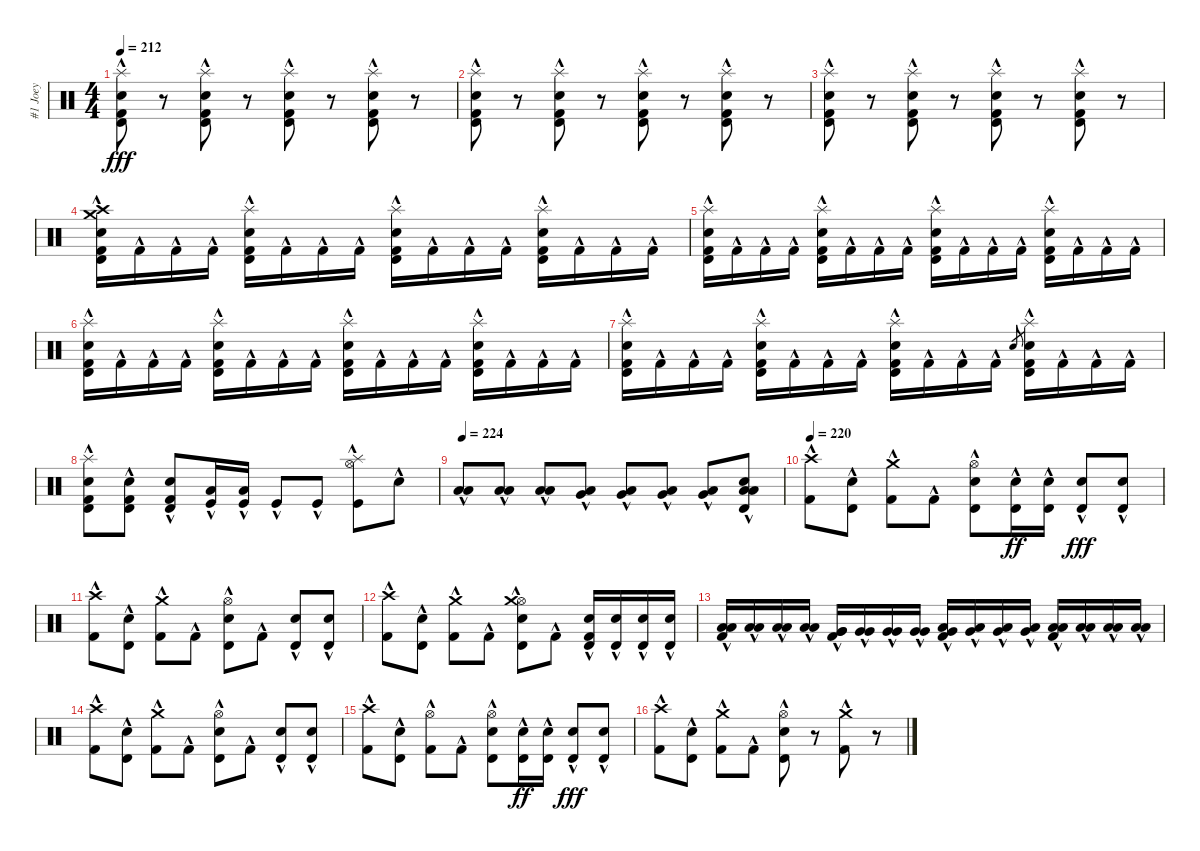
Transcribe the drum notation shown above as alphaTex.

\track ("#1 Joey" "#1 Joey") {instrument percussion}
\staff {score}
\articulation defaults
\ts (4 4)
\tempo 212
\clef neutral
\ks c
("Splash (hit)"{hac} "Timbale high (hit)"{hac} "Electric Snare (hit)"{hac} "Kick (hit) 2"{hac}).8{dy fff} r.8 ("Splash (hit)"{hac} "Timbale high (hit)"{hac} "Electric Snare (hit)"{hac} "Kick (hit) 2"{hac}).8 r.8 ("Splash (hit)"{hac} "Timbale high (hit)"{hac} "Electric Snare (hit)"{hac} "Kick (hit) 2"{hac}).8 r.8 ("Splash (hit)"{hac} "Timbale high (hit)"{hac} "Electric Snare (hit)"{hac} "Kick (hit) 2"{hac}).8 r.8 |
("Splash (hit)"{hac} "Timbale high (hit)"{hac} "Electric Snare (hit)"{hac} "Kick (hit) 2"{hac}).8 r.8 ("Splash (hit)"{hac} "Timbale high (hit)"{hac} "Electric Snare (hit)"{hac} "Kick (hit) 2"{hac}).8 r.8 ("Splash (hit)"{hac} "Timbale high (hit)"{hac} "Electric Snare (hit)"{hac} "Kick (hit) 2"{hac}).8 r.8 ("Splash (hit)"{hac} "Timbale high (hit)"{hac} "Electric Snare (hit)"{hac} "Kick (hit) 2"{hac}).8 r.8 |
("Splash (hit)"{hac} "Timbale high (hit)"{hac} "Electric Snare (hit)"{hac} "Kick (hit) 2"{hac}).8 r.8 ("Splash (hit)"{hac} "Timbale high (hit)"{hac} "Electric Snare (hit)"{hac} "Kick (hit) 2"{hac}).8 r.8 ("Splash (hit)"{hac} "Timbale high (hit)"{hac} "Electric Snare (hit)"{hac} "Kick (hit) 2"{hac}).8 r.8 ("Splash (hit)"{hac} "Timbale high (hit)"{hac} "Electric Snare (hit)"{hac} "Kick (hit) 2"{hac}).8 r.8 |
("Crash high (hit)"{hac} "Crash medium (hit)"{hac} "Timbale high (hit)"{hac} "Electric Snare (hit)"{hac} "Kick (hit) 2"{hac}).16 "Kick (hit) 2"{hac}.16 "Kick (hit) 2"{hac}.16 "Kick (hit) 2"{hac}.16 ("Splash (hit)"{hac} "Timbale high (hit)"{hac} "Electric Snare (hit)"{hac} "Kick (hit) 2"{hac}).16 "Kick (hit) 2"{hac}.16 "Kick (hit) 2"{hac}.16 "Kick (hit) 2"{hac}.16 ("Splash (hit)"{hac} "Timbale high (hit)"{hac} "Electric Snare (hit)"{hac} "Kick (hit) 2"{hac}).16 "Kick (hit) 2"{hac}.16 "Kick (hit) 2"{hac}.16 "Kick (hit) 2"{hac}.16 ("Splash (hit)"{hac} "Timbale high (hit)"{hac} "Electric Snare (hit)"{hac} "Kick (hit) 2"{hac}).16 "Kick (hit) 2"{hac}.16 "Kick (hit) 2"{hac}.16 "Kick (hit) 2"{hac}.16 |
("Splash (hit)"{hac} "Timbale high (hit)"{hac} "Electric Snare (hit)"{hac} "Kick (hit) 2"{hac}).16 "Kick (hit) 2"{hac}.16 "Kick (hit) 2"{hac}.16 "Kick (hit) 2"{hac}.16 ("Splash (hit)"{hac} "Timbale high (hit)"{hac} "Electric Snare (hit)"{hac} "Kick (hit) 2"{hac}).16 "Kick (hit) 2"{hac}.16 "Kick (hit) 2"{hac}.16 "Kick (hit) 2"{hac}.16 ("Splash (hit)"{hac} "Timbale high (hit)"{hac} "Electric Snare (hit)"{hac} "Kick (hit) 2"{hac}).16 "Kick (hit) 2"{hac}.16 "Kick (hit) 2"{hac}.16 "Kick (hit) 2"{hac}.16 ("Splash (hit)"{hac} "Timbale high (hit)"{hac} "Electric Snare (hit)"{hac} "Kick (hit) 2"{hac}).16 "Kick (hit) 2"{hac}.16 "Kick (hit) 2"{hac}.16 "Kick (hit) 2"{hac}.16 |
("Splash (hit)"{hac} "Timbale high (hit)"{hac} "Electric Snare (hit)"{hac} "Kick (hit) 2"{hac}).16 "Kick (hit) 2"{hac}.16 "Kick (hit) 2"{hac}.16 "Kick (hit) 2"{hac}.16 ("Splash (hit)"{hac} "Timbale high (hit)"{hac} "Electric Snare (hit)"{hac} "Kick (hit) 2"{hac}).16 "Kick (hit) 2"{hac}.16 "Kick (hit) 2"{hac}.16 "Kick (hit) 2"{hac}.16 ("Splash (hit)"{hac} "Timbale high (hit)"{hac} "Electric Snare (hit)"{hac} "Kick (hit) 2"{hac}).16 "Kick (hit) 2"{hac}.16 "Kick (hit) 2"{hac}.16 "Kick (hit) 2"{hac}.16 ("Splash (hit)"{hac} "Timbale high (hit)"{hac} "Electric Snare (hit)"{hac} "Kick (hit) 2"{hac}).16 "Kick (hit) 2"{hac}.16 "Kick (hit) 2"{hac}.16 "Kick (hit) 2"{hac}.16 |
("Splash (hit)"{hac} "Timbale high (hit)"{hac} "Electric Snare (hit)"{hac} "Kick (hit) 2"{hac}).16 "Kick (hit) 2"{hac}.16 "Kick (hit) 2"{hac}.16 "Kick (hit) 2"{hac}.16 ("Splash (hit)"{hac} "Timbale high (hit)"{hac} "Electric Snare (hit)"{hac} "Kick (hit) 2"{hac}).16 "Kick (hit) 2"{hac}.16 "Kick (hit) 2"{hac}.16 "Kick (hit) 2"{hac}.16 ("Splash (hit)"{hac} "Timbale high (hit)"{hac} "Electric Snare (hit)"{hac} "Kick (hit) 2"{hac}).16 "Kick (hit) 2"{hac}.16 "Kick (hit) 2"{hac}.16 "Kick (hit) 2"{hac}.16 "Electric Snare (hit)".8{gr} ("Splash (hit)"{hac} "Timbale high (hit)"{hac} "Electric Snare (hit)"{hac} "Kick (hit) 2"{hac}).16 "Kick (hit) 2"{hac}.16 "Kick (hit) 2"{hac}.16 "Kick (hit) 2"{hac}.16 |
("Splash (hit)"{hac} "Timbale high (hit)"{hac} "Electric Snare (hit)"{hac} "Kick (hit) 2"{hac}).8 ("Timbale high (hit)"{hac} "Electric Snare (hit)"{hac} "Kick (hit) 2"{hac}).8 ("Timbale high (hit)"{hac} "Electric Snare (hit)"{hac} "Kick (hit) 2"{hac}).8 ("Low Floor Tom (hit)"{hac} "Kick (hit)"{hac}).16 ("Low Floor Tom (hit)"{hac} "Kick (hit)"{hac}).16 "Kick (hit)"{hac}.8 "Kick (hit)"{hac}.8 ("Hi-Hat (open)"{hac} "Splash (hit)"{hac} "Kick (hit)"{hac}).8 "Electric Snare (hit)"{hac}.8 |
\tempo 224
("Low Tom (hit)"{hac} "Low Floor Tom (hit)"{hac}).8 ("Low Tom (hit)"{hac} "Low Floor Tom (hit)"{hac}).8 ("Low Tom (hit)"{hac} "Low Floor Tom (hit)"{hac}).8 ("Very Low Tom (hit)"{hac} "Low Floor Tom (hit)"{hac}).8 ("Very Low Tom (hit)"{hac} "Low Floor Tom (hit)"{hac}).8 ("Very Low Tom (hit)"{hac} "Low Floor Tom (hit)"{hac}).8 ("Very Low Tom (hit)"{hac} "Low Floor Tom (hit)"{hac}).8 ("Timbale high (hit)"{hac} "Electric Snare (hit)"{hac} "Low Floor Tom (hit)"{hac} "Low Floor Tom (hit)"{hac}).8 |
\tempo 220
("Crash high (hit)"{hac} "Kick (hit) 2"{hac}).8 ("Timbale high (hit)"{hac} "Electric Snare (hit)"{hac}).8 ("Crash medium (hit)"{hac} "Kick (hit) 2"{hac}).8 "Kick (hit) 2"{hac}.8 ("Hi-Hat (open)"{hac} "Timbale high (hit)"{hac} "Electric Snare (hit)"{hac}).8 ("Timbale high (hit)"{hac} "Electric Snare (hit)"{hac}).16{dy ff} ("Timbale high (hit)"{hac} "Electric Snare (hit)"{hac}).16 ("Timbale high (hit)"{hac} "Electric Snare (hit)"{hac}).8{dy fff} ("Timbale high (hit)"{hac} "Electric Snare (hit)"{hac}).8 |
("Crash high (hit)"{hac} "Kick (hit) 2"{hac}).8 ("Timbale high (hit)"{hac} "Electric Snare (hit)"{hac}).8 ("Crash medium (hit)"{hac} "Kick (hit) 2"{hac}).8 "Kick (hit) 2"{hac}.8 ("Hi-Hat (open)"{hac} "Timbale high (hit)"{hac} "Electric Snare (hit)"{hac}).8 "Kick (hit) 2"{hac}.8 ("Timbale high (hit)"{hac} "Electric Snare (hit)"{hac}).8 ("Timbale high (hit)"{hac} "Electric Snare (hit)"{hac}).8 |
("Crash high (hit)"{hac} "Kick (hit) 2"{hac}).8 ("Timbale high (hit)"{hac} "Electric Snare (hit)"{hac}).8 ("Crash medium (hit)"{hac} "Kick (hit) 2"{hac}).8 "Kick (hit) 2"{hac}.8 ("Hi-Hat (open)"{hac} "Crash medium (hit)"{hac} "Timbale high (hit)"{hac} "Electric Snare (hit)"{hac}).8 "Kick (hit) 2"{hac}.8 ("Timbale high (hit)"{hac} "Electric Snare (hit)"{hac} "Kick (hit) 2"{hac}).16 ("Timbale high (hit)"{hac} "Electric Snare (hit)"{hac}).16 ("Timbale high (hit)"{hac} "Electric Snare (hit)"{hac}).16 ("Timbale high (hit)"{hac} "Electric Snare (hit)"{hac}).16 |
("Low Tom (hit)"{hac} "Low Tom (hit)"{hac} "Kick (hit) 2"{hac}).16 ("Low Tom (hit)"{hac} "Low Tom (hit)"{hac}).16 ("Low Tom (hit)"{hac} "Low Tom (hit)"{hac}).16 ("Low Tom (hit)"{hac} "Low Tom (hit)"{hac}).16 ("Very Low Tom (hit)"{hac} "Very Low Tom (hit)"{hac} "Kick (hit) 2"{hac}).16 ("Very Low Tom (hit)"{hac} "Very Low Tom (hit)"{hac}).16 ("Very Low Tom (hit)"{hac} "Very Low Tom (hit)"{hac}).16 ("Very Low Tom (hit)"{hac} "Very Low Tom (hit)"{hac}).16 ("Very Low Tom (hit)"{hac} "Low Floor Tom (hit)"{hac} "Kick (hit) 2"{hac}).16 ("Very Low Tom (hit)"{hac} "Low Floor Tom (hit)"{hac}).16 ("Very Low Tom (hit)"{hac} "Low Floor Tom (hit)"{hac}).16 ("Very Low Tom (hit)"{hac} "Low Floor Tom (hit)"{hac}).16 ("Low Floor Tom (hit)"{hac} "Low Floor Tom (hit)"{hac} "Kick (hit) 2"{hac}).16 ("Low Floor Tom (hit)"{hac} "Low Floor Tom (hit)"{hac}).16 ("Low Floor Tom (hit)"{hac} "Low Floor Tom (hit)"{hac}).16 ("Low Floor Tom (hit)"{hac} "Low Floor Tom (hit)"{hac}).16 |
("Crash high (hit)"{hac} "Kick (hit) 2"{hac}).8 ("Timbale high (hit)"{hac} "Electric Snare (hit)"{hac}).8 ("Crash medium (hit)"{hac} "Kick (hit) 2"{hac}).8 "Kick (hit) 2"{hac}.8 ("Hi-Hat (open)"{hac} "Timbale high (hit)"{hac} "Electric Snare (hit)"{hac}).8 "Kick (hit) 2"{hac}.8 ("Timbale high (hit)"{hac} "Electric Snare (hit)"{hac}).8 ("Timbale high (hit)"{hac} "Electric Snare (hit)"{hac}).8 |
("Crash high (hit)"{hac} "Kick (hit) 2"{hac}).8 ("Timbale high (hit)"{hac} "Electric Snare (hit)"{hac}).8 ("Hi-Hat (open)"{hac} "Kick (hit) 2"{hac}).8 "Kick (hit) 2"{hac}.8 ("Hi-Hat (open)"{hac} "Timbale high (hit)"{hac} "Electric Snare (hit)"{hac}).8 ("Timbale high (hit)"{hac} "Electric Snare (hit)"{hac}).16{dy ff} ("Timbale high (hit)"{hac} "Electric Snare (hit)"{hac}).16 ("Timbale high (hit)"{hac} "Electric Snare (hit)"{hac}).8{dy fff} ("Timbale high (hit)"{hac} "Electric Snare (hit)"{hac}).8 |
("Crash high (hit)"{hac} "Kick (hit) 2"{hac}).8 ("Timbale high (hit)"{hac} "Electric Snare (hit)"{hac}).8 ("Crash medium (hit)"{hac} "Kick (hit) 2"{hac}).8 "Kick (hit) 2"{hac}.8 ("Hi-Hat (open)"{hac} "Timbale high (hit)"{hac} "Electric Snare (hit)"{hac}).8 r.8 ("Crash medium (hit)"{hac} "Kick (hit) 2"{hac}).8 r.8
